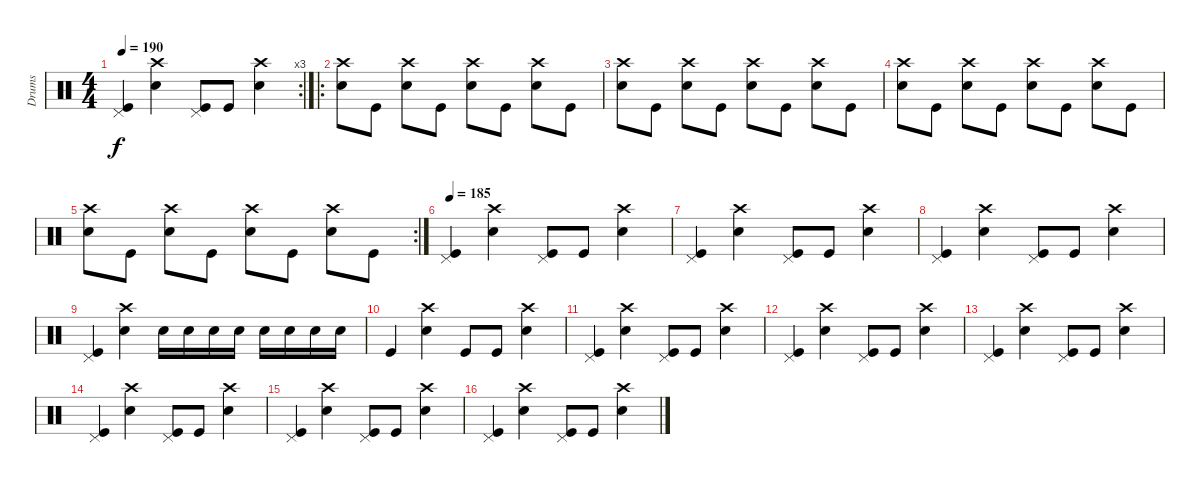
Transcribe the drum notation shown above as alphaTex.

\track ("Drums" "Drums") {instrument percussion}
\staff {score}
\articulation defaults
\rc 3
\ts (4 4)
\tempo 190
\clef neutral
\ks c
("Pedal Hi-Hat (hit)" "Kick (hit)").4{dy f} ("Crash high (hit)" "Electric Snare (hit)").4 ("Pedal Hi-Hat (hit)" "Kick (hit)").8 "Kick (hit)".8 ("Crash high (hit)" "Electric Snare (hit)").4 |
\ro
("Crash high (hit)" "Electric Snare (hit)").8 "Kick (hit)".8 ("Crash high (hit)" "Electric Snare (hit)").8 "Kick (hit)".8 ("Crash high (hit)" "Electric Snare (hit)").8 "Kick (hit)".8 ("Crash high (hit)" "Electric Snare (hit)").8 "Kick (hit)".8 |
("Crash high (hit)" "Electric Snare (hit)").8 "Kick (hit)".8 ("Crash high (hit)" "Electric Snare (hit)").8 "Kick (hit)".8 ("Crash high (hit)" "Electric Snare (hit)").8 "Kick (hit)".8 ("Crash high (hit)" "Electric Snare (hit)").8 "Kick (hit)".8 |
("Crash high (hit)" "Electric Snare (hit)").8 "Kick (hit)".8 ("Crash high (hit)" "Electric Snare (hit)").8 "Kick (hit)".8 ("Crash high (hit)" "Electric Snare (hit)").8 "Kick (hit)".8 ("Crash high (hit)" "Electric Snare (hit)").8 "Kick (hit)".8 |
\rc 2
("Crash high (hit)" "Electric Snare (hit)").8 "Kick (hit)".8 ("Crash high (hit)" "Electric Snare (hit)").8 "Kick (hit)".8 ("Crash high (hit)" "Electric Snare (hit)").8 "Kick (hit)".8 ("Crash high (hit)" "Electric Snare (hit)").8 "Kick (hit)".8 |
\tempo 185
("Pedal Hi-Hat (hit)" "Kick (hit)").4 ("Crash high (hit)" "Electric Snare (hit)").4 ("Pedal Hi-Hat (hit)" "Kick (hit)").8 "Kick (hit)".8 ("Crash high (hit)" "Electric Snare (hit)").4 |
("Pedal Hi-Hat (hit)" "Kick (hit)").4 ("Crash high (hit)" "Electric Snare (hit)").4 ("Pedal Hi-Hat (hit)" "Kick (hit)").8 "Kick (hit)".8 ("Crash high (hit)" "Electric Snare (hit)").4 |
("Pedal Hi-Hat (hit)" "Kick (hit)").4 ("Crash high (hit)" "Electric Snare (hit)").4 ("Pedal Hi-Hat (hit)" "Kick (hit)").8 "Kick (hit)".8 ("Crash high (hit)" "Electric Snare (hit)").4 |
("Pedal Hi-Hat (hit)" "Kick (hit)").4 ("Crash high (hit)" "Electric Snare (hit)").4 "Electric Snare (hit)".16 "Electric Snare (hit)".16 "Electric Snare (hit)".16 "Electric Snare (hit)".16 "Electric Snare (hit)".16 "Electric Snare (hit)".16 "Electric Snare (hit)".16 "Electric Snare (hit)".16 |
"Kick (hit)".4 ("Crash high (hit)" "Electric Snare (hit)").4 "Kick (hit)".8 "Kick (hit)".8 ("Crash high (hit)" "Electric Snare (hit)").4 |
("Pedal Hi-Hat (hit)" "Kick (hit)").4 ("Crash high (hit)" "Electric Snare (hit)").4 ("Pedal Hi-Hat (hit)" "Kick (hit)").8 "Kick (hit)".8 ("Crash high (hit)" "Electric Snare (hit)").4 |
("Pedal Hi-Hat (hit)" "Kick (hit)").4 ("Crash high (hit)" "Electric Snare (hit)").4 ("Pedal Hi-Hat (hit)" "Kick (hit)").8 "Kick (hit)".8 ("Crash high (hit)" "Electric Snare (hit)").4 |
("Pedal Hi-Hat (hit)" "Kick (hit)").4 ("Crash high (hit)" "Electric Snare (hit)").4 ("Pedal Hi-Hat (hit)" "Kick (hit)").8 "Kick (hit)".8 ("Crash high (hit)" "Electric Snare (hit)").4 |
("Pedal Hi-Hat (hit)" "Kick (hit)").4 ("Crash high (hit)" "Electric Snare (hit)").4 ("Pedal Hi-Hat (hit)" "Kick (hit)").8 "Kick (hit)".8 ("Crash high (hit)" "Electric Snare (hit)").4 |
("Pedal Hi-Hat (hit)" "Kick (hit)").4 ("Crash high (hit)" "Electric Snare (hit)").4 ("Pedal Hi-Hat (hit)" "Kick (hit)").8 "Kick (hit)".8 ("Crash high (hit)" "Electric Snare (hit)").4 |
("Pedal Hi-Hat (hit)" "Kick (hit)").4 ("Crash high (hit)" "Electric Snare (hit)").4 ("Pedal Hi-Hat (hit)" "Kick (hit)").8 "Kick (hit)".8 ("Crash high (hit)" "Electric Snare (hit)").4
